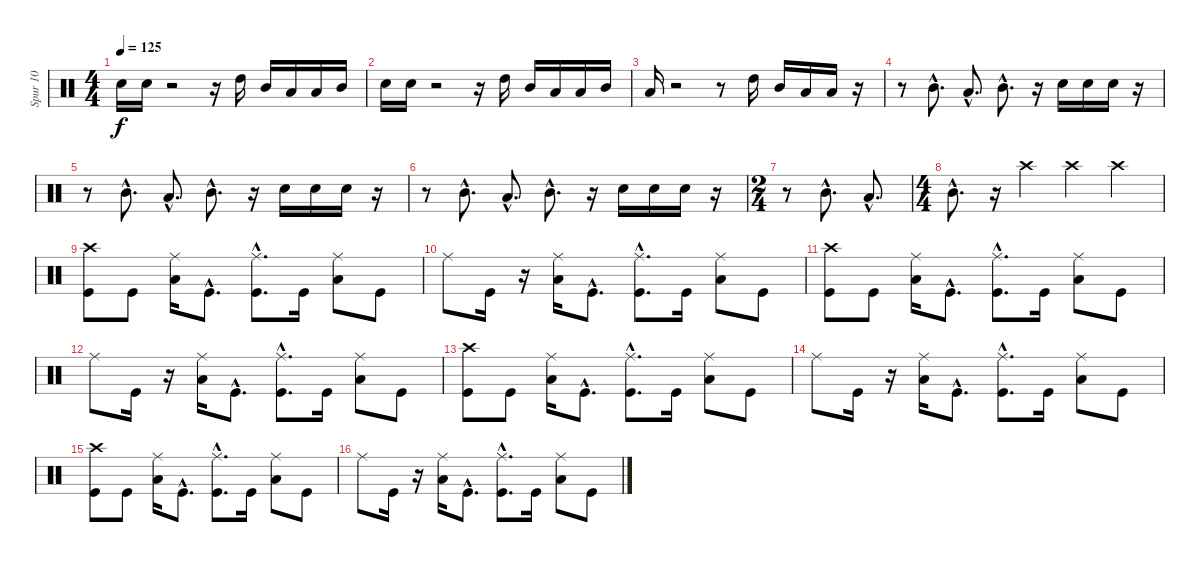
\track ("Spur 10" "Spur 10") {instrument percussion}
\staff {score}
\articulation defaults
\ts (4 4)
\tempo 125
\clef neutral
\ks c "Electric Snare (hit)".16{dy f} "Electric Snare (hit)".16
r.2 r.16 "High Tom (hit)".16 "Mid Tom (hit)".16 "Low Tom (hit)".16 "Low Tom (hit)".16 "Mid Tom (hit)".16 |
"Electric Snare (hit)".16 "Electric Snare (hit)".16 r.2 r.16 "High Tom (hit)".16 "Mid Tom (hit)".16 "Low Tom (hit)".16 "Low Tom (hit)".16 "Mid Tom (hit)".16 |
"Low Tom (hit)".16 r.2 r.8 "High Tom (hit)".16 "Mid Tom (hit)".16 "Low Tom (hit)".16 "Low Tom (hit)".16 r.16 |
r.8 "Mid Tom (hit)"{hac}.8{d} "Low Tom (hit)"{hac}.8{d} "Mid Tom (hit)"{hac}.8{d} r.16 "Electric Snare (hit)".16 "Electric Snare (hit)".16 "Electric Snare (hit)".16 r.16 |
r.8 "Mid Tom (hit)"{hac}.8{d} "Low Tom (hit)"{hac}.8{d} "Mid Tom (hit)"{hac}.8{d} r.16 "Electric Snare (hit)".16 "Electric Snare (hit)".16 "Electric Snare (hit)".16 r.16 |
r.8 "Mid Tom (hit)"{hac}.8{d} "Low Tom (hit)"{hac}.8{d} "Mid Tom (hit)"{hac}.8{d} r.16 "Electric Snare (hit)".16 "Electric Snare (hit)".16 "Electric Snare (hit)".16 r.16 |
\ts (2 4)
r.8 "Mid Tom (hit)"{hac}.8{d} "Low Tom (hit)"{hac}.8{d} |
\ts (4 4)
"Mid Tom (hit)"{hac}.8{d} r.16 "Crash high (hit)".4 "Crash high (hit)".4 "Crash high (hit)".4 |
("Crash high (hit)" "Kick (hit)").8 "Kick (hit)".8 ("Ride (middle)" "Low Tom (hit)").16 "Kick (hit)"{hac}.8{d} ("Kick (hit)"{hac} "Ride (middle)").8{d} "Kick (hit)".16 ("Ride (middle)" "Low Tom (hit)").8 "Kick (hit)".8 |
"Ride (middle)".8 "Kick (hit)".16 r.16 ("Low Tom (hit)" "Ride (middle)").16 "Kick (hit)"{hac}.8{d} ("Kick (hit)"{hac} "Ride (middle)").8{d} "Kick (hit)".16 ("Ride (middle)" "Low Tom (hit)").8 "Kick (hit)".8 |
("Kick (hit)" "Crash high (hit)").8 "Kick (hit)".8 ("Low Tom (hit)" "Ride (middle)").16 "Kick (hit)"{hac}.8{d} ("Ride (middle)" "Kick (hit)"{hac}).8{d} "Kick (hit)".16 ("Low Tom (hit)" "Ride (middle)").8 "Kick (hit)".8 |
"Ride (middle)".8 "Kick (hit)".16 r.16 ("Low Tom (hit)" "Ride (middle)").16 "Kick (hit)"{hac}.8{d} ("Kick (hit)"{hac} "Ride (middle)").8{d} "Kick (hit)".16 ("Ride (middle)" "Low Tom (hit)").8 "Kick (hit)".8 |
("Kick (hit)" "Crash high (hit)").8 "Kick (hit)".8 ("Ride (middle)" "Low Tom (hit)").16 "Kick (hit)"{hac}.8{d} ("Ride (middle)" "Kick (hit)"{hac}).8{d} "Kick (hit)".16 ("Ride (middle)" "Low Tom (hit)").8 "Kick (hit)".8 |
"Ride (middle)".8 "Kick (hit)".16 r.16 ("Ride (middle)" "Low Tom (hit)").16 "Kick (hit)"{hac}.8{d} ("Ride (middle)" "Kick (hit)"{hac}).8{d} "Kick (hit)".16 ("Ride (middle)" "Low Tom (hit)").8 "Kick (hit)".8 |
("Crash high (hit)" "Kick (hit)").8 "Kick (hit)".8 ("Ride (middle)" "Low Tom (hit)").16 "Kick (hit)"{hac}.8{d} ("Ride (middle)" "Kick (hit)"{hac}).8{d} "Kick (hit)".16 ("Ride (middle)" "Low Tom (hit)").8 "Kick (hit)".8 |
"Ride (middle)".8 "Kick (hit)".16 r.16 ("Ride (middle)" "Low Tom (hit)").16 "Kick (hit)"{hac}.8{d} ("Kick (hit)"{hac} "Ride (middle)").8{d} "Kick (hit)".16 ("Ride (middle)" "Low Tom (hit)").8 "Kick (hit)".8
